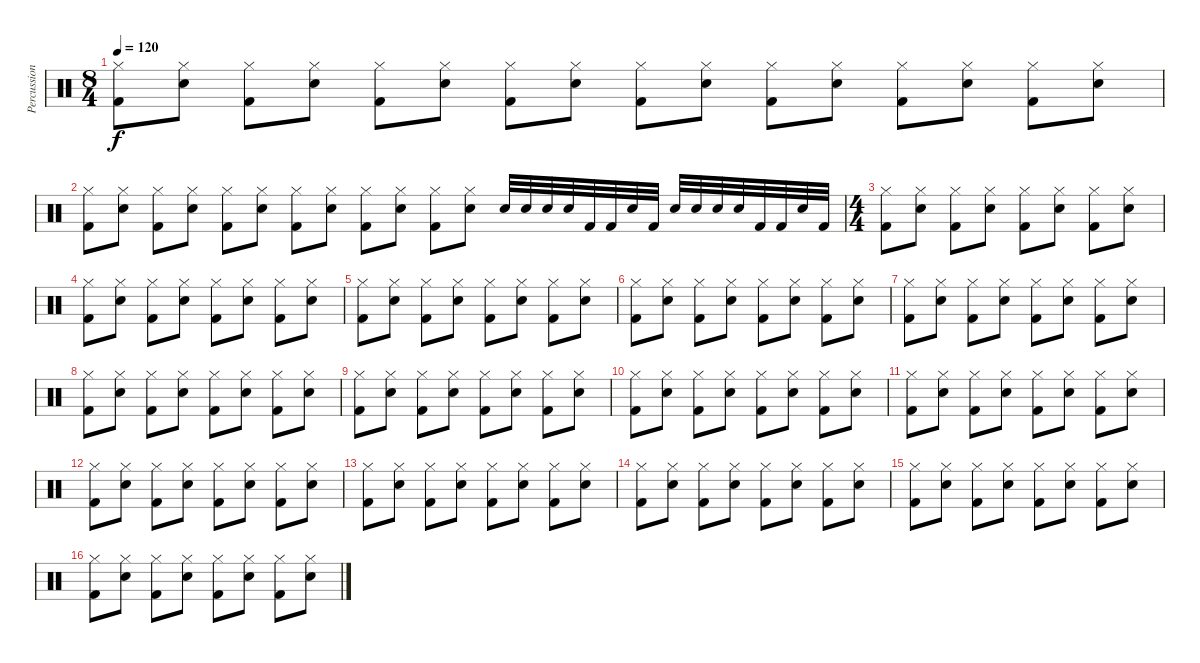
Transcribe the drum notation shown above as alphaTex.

\track ("Percussion" "Percussion") {instrument percussion}
\staff {score}
\articulation defaults
\ts (8 4)
\tempo 120
\clef neutral
\ks c
("Hi-Hat (closed)" "Kick (hit) 2").8{dy f} ("Hi-Hat (closed)" "Electric Snare (hit)").8 ("Hi-Hat (closed)" "Kick (hit) 2").8 ("Hi-Hat (closed)" "Electric Snare (hit)").8 ("Hi-Hat (closed)" "Kick (hit) 2").8 ("Hi-Hat (closed)" "Electric Snare (hit)").8 ("Hi-Hat (closed)" "Kick (hit) 2").8 ("Hi-Hat (closed)" "Electric Snare (hit)").8 ("Hi-Hat (closed)" "Kick (hit) 2").8 ("Hi-Hat (closed)" "Electric Snare (hit)").8 ("Hi-Hat (closed)" "Kick (hit) 2").8 ("Hi-Hat (closed)" "Electric Snare (hit)").8 ("Hi-Hat (closed)" "Kick (hit) 2").8 ("Hi-Hat (closed)" "Electric Snare (hit)").8 ("Hi-Hat (closed)" "Kick (hit) 2").8 ("Hi-Hat (closed)" "Electric Snare (hit)").8 |
("Hi-Hat (closed)" "Kick (hit) 2").8 ("Hi-Hat (closed)" "Electric Snare (hit)").8 ("Hi-Hat (closed)" "Kick (hit) 2").8 ("Hi-Hat (closed)" "Electric Snare (hit)").8 ("Hi-Hat (closed)" "Kick (hit) 2").8 ("Hi-Hat (closed)" "Electric Snare (hit)").8 ("Hi-Hat (closed)" "Kick (hit) 2").8 ("Hi-Hat (closed)" "Electric Snare (hit)").8 ("Hi-Hat (closed)" "Kick (hit) 2").8 ("Hi-Hat (closed)" "Electric Snare (hit)").8 ("Hi-Hat (closed)" "Kick (hit) 2").8 ("Hi-Hat (closed)" "Electric Snare (hit)").8 "Electric Snare (hit)".32 "Electric Snare (hit)".32 "Electric Snare (hit)".32 "Electric Snare (hit)".32 "Kick (hit) 2".32 "Kick (hit) 2".32 "Electric Snare (hit)".32 "Kick (hit) 2".32 "Electric Snare (hit)".32 "Electric Snare (hit)".32 "Electric Snare (hit)".32 "Electric Snare (hit)".32 "Kick (hit) 2".32 "Kick (hit) 2".32 "Electric Snare (hit)".32 "Kick (hit) 2".32 |
\ts (4 4)
("Hi-Hat (closed)" "Kick (hit) 2").8 ("Hi-Hat (closed)" "Electric Snare (hit)").8 ("Hi-Hat (closed)" "Kick (hit) 2").8 ("Hi-Hat (closed)" "Electric Snare (hit)").8 ("Hi-Hat (closed)" "Kick (hit) 2").8 ("Hi-Hat (closed)" "Electric Snare (hit)").8 ("Hi-Hat (closed)" "Kick (hit) 2").8 ("Hi-Hat (closed)" "Electric Snare (hit)").8 |
("Hi-Hat (closed)" "Kick (hit) 2").8 ("Hi-Hat (closed)" "Electric Snare (hit)").8 ("Hi-Hat (closed)" "Kick (hit) 2").8 ("Hi-Hat (closed)" "Electric Snare (hit)").8 ("Hi-Hat (closed)" "Kick (hit) 2").8 ("Hi-Hat (closed)" "Electric Snare (hit)").8 ("Hi-Hat (closed)" "Kick (hit) 2").8 ("Hi-Hat (closed)" "Electric Snare (hit)").8 |
("Hi-Hat (closed)" "Kick (hit) 2").8 ("Hi-Hat (closed)" "Electric Snare (hit)").8 ("Hi-Hat (closed)" "Kick (hit) 2").8 ("Hi-Hat (closed)" "Electric Snare (hit)").8 ("Hi-Hat (closed)" "Kick (hit) 2").8 ("Hi-Hat (closed)" "Electric Snare (hit)").8 ("Hi-Hat (closed)" "Kick (hit) 2").8 ("Hi-Hat (closed)" "Electric Snare (hit)").8 |
("Hi-Hat (closed)" "Kick (hit) 2").8 ("Hi-Hat (closed)" "Electric Snare (hit)").8 ("Hi-Hat (closed)" "Kick (hit) 2").8 ("Hi-Hat (closed)" "Electric Snare (hit)").8 ("Hi-Hat (closed)" "Kick (hit) 2").8 ("Hi-Hat (closed)" "Electric Snare (hit)").8 ("Hi-Hat (closed)" "Kick (hit) 2").8 ("Hi-Hat (closed)" "Electric Snare (hit)").8 |
("Hi-Hat (closed)" "Kick (hit) 2").8 ("Hi-Hat (closed)" "Electric Snare (hit)").8 ("Hi-Hat (closed)" "Kick (hit) 2").8 ("Hi-Hat (closed)" "Electric Snare (hit)").8 ("Hi-Hat (closed)" "Kick (hit) 2").8 ("Hi-Hat (closed)" "Electric Snare (hit)").8 ("Hi-Hat (closed)" "Kick (hit) 2").8 ("Hi-Hat (closed)" "Electric Snare (hit)").8 |
("Hi-Hat (closed)" "Kick (hit) 2").8 ("Hi-Hat (closed)" "Electric Snare (hit)").8 ("Hi-Hat (closed)" "Kick (hit) 2").8 ("Hi-Hat (closed)" "Electric Snare (hit)").8 ("Hi-Hat (closed)" "Kick (hit) 2").8 ("Hi-Hat (closed)" "Electric Snare (hit)").8 ("Hi-Hat (closed)" "Kick (hit) 2").8 ("Hi-Hat (closed)" "Electric Snare (hit)").8 |
("Hi-Hat (closed)" "Kick (hit) 2").8 ("Hi-Hat (closed)" "Electric Snare (hit)").8 ("Hi-Hat (closed)" "Kick (hit) 2").8 ("Hi-Hat (closed)" "Electric Snare (hit)").8 ("Hi-Hat (closed)" "Kick (hit) 2").8 ("Hi-Hat (closed)" "Electric Snare (hit)").8 ("Hi-Hat (closed)" "Kick (hit) 2").8 ("Hi-Hat (closed)" "Electric Snare (hit)").8 |
("Hi-Hat (closed)" "Kick (hit) 2").8 ("Hi-Hat (closed)" "Electric Snare (hit)").8 ("Hi-Hat (closed)" "Kick (hit) 2").8 ("Hi-Hat (closed)" "Electric Snare (hit)").8 ("Hi-Hat (closed)" "Kick (hit) 2").8 ("Hi-Hat (closed)" "Electric Snare (hit)").8 ("Hi-Hat (closed)" "Kick (hit) 2").8 ("Hi-Hat (closed)" "Electric Snare (hit)").8 |
("Hi-Hat (closed)" "Kick (hit) 2").8 ("Hi-Hat (closed)" "Electric Snare (hit)").8 ("Hi-Hat (closed)" "Kick (hit) 2").8 ("Hi-Hat (closed)" "Electric Snare (hit)").8 ("Hi-Hat (closed)" "Kick (hit) 2").8 ("Hi-Hat (closed)" "Electric Snare (hit)").8 ("Hi-Hat (closed)" "Kick (hit) 2").8 ("Hi-Hat (closed)" "Electric Snare (hit)").8 |
("Hi-Hat (closed)" "Kick (hit) 2").8 ("Hi-Hat (closed)" "Electric Snare (hit)").8 ("Hi-Hat (closed)" "Kick (hit) 2").8 ("Hi-Hat (closed)" "Electric Snare (hit)").8 ("Hi-Hat (closed)" "Kick (hit) 2").8 ("Hi-Hat (closed)" "Electric Snare (hit)").8 ("Hi-Hat (closed)" "Kick (hit) 2").8 ("Hi-Hat (closed)" "Electric Snare (hit)").8 |
("Hi-Hat (closed)" "Kick (hit) 2").8 ("Hi-Hat (closed)" "Electric Snare (hit)").8 ("Hi-Hat (closed)" "Kick (hit) 2").8 ("Hi-Hat (closed)" "Electric Snare (hit)").8 ("Hi-Hat (closed)" "Kick (hit) 2").8 ("Hi-Hat (closed)" "Electric Snare (hit)").8 ("Hi-Hat (closed)" "Kick (hit) 2").8 ("Hi-Hat (closed)" "Electric Snare (hit)").8 |
("Hi-Hat (closed)" "Kick (hit) 2").8 ("Hi-Hat (closed)" "Electric Snare (hit)").8 ("Hi-Hat (closed)" "Kick (hit) 2").8 ("Hi-Hat (closed)" "Electric Snare (hit)").8 ("Hi-Hat (closed)" "Kick (hit) 2").8 ("Hi-Hat (closed)" "Electric Snare (hit)").8 ("Hi-Hat (closed)" "Kick (hit) 2").8 ("Hi-Hat (closed)" "Electric Snare (hit)").8 |
("Hi-Hat (closed)" "Kick (hit) 2").8 ("Hi-Hat (closed)" "Electric Snare (hit)").8 ("Hi-Hat (closed)" "Kick (hit) 2").8 ("Hi-Hat (closed)" "Electric Snare (hit)").8 ("Hi-Hat (closed)" "Kick (hit) 2").8 ("Hi-Hat (closed)" "Electric Snare (hit)").8 ("Hi-Hat (closed)" "Kick (hit) 2").8 ("Hi-Hat (closed)" "Electric Snare (hit)").8 |
("Hi-Hat (closed)" "Kick (hit) 2").8 ("Hi-Hat (closed)" "Electric Snare (hit)").8 ("Hi-Hat (closed)" "Kick (hit) 2").8 ("Hi-Hat (closed)" "Electric Snare (hit)").8 ("Hi-Hat (closed)" "Kick (hit) 2").8 ("Hi-Hat (closed)" "Electric Snare (hit)").8 ("Hi-Hat (closed)" "Kick (hit) 2").8 ("Hi-Hat (closed)" "Electric Snare (hit)").8
